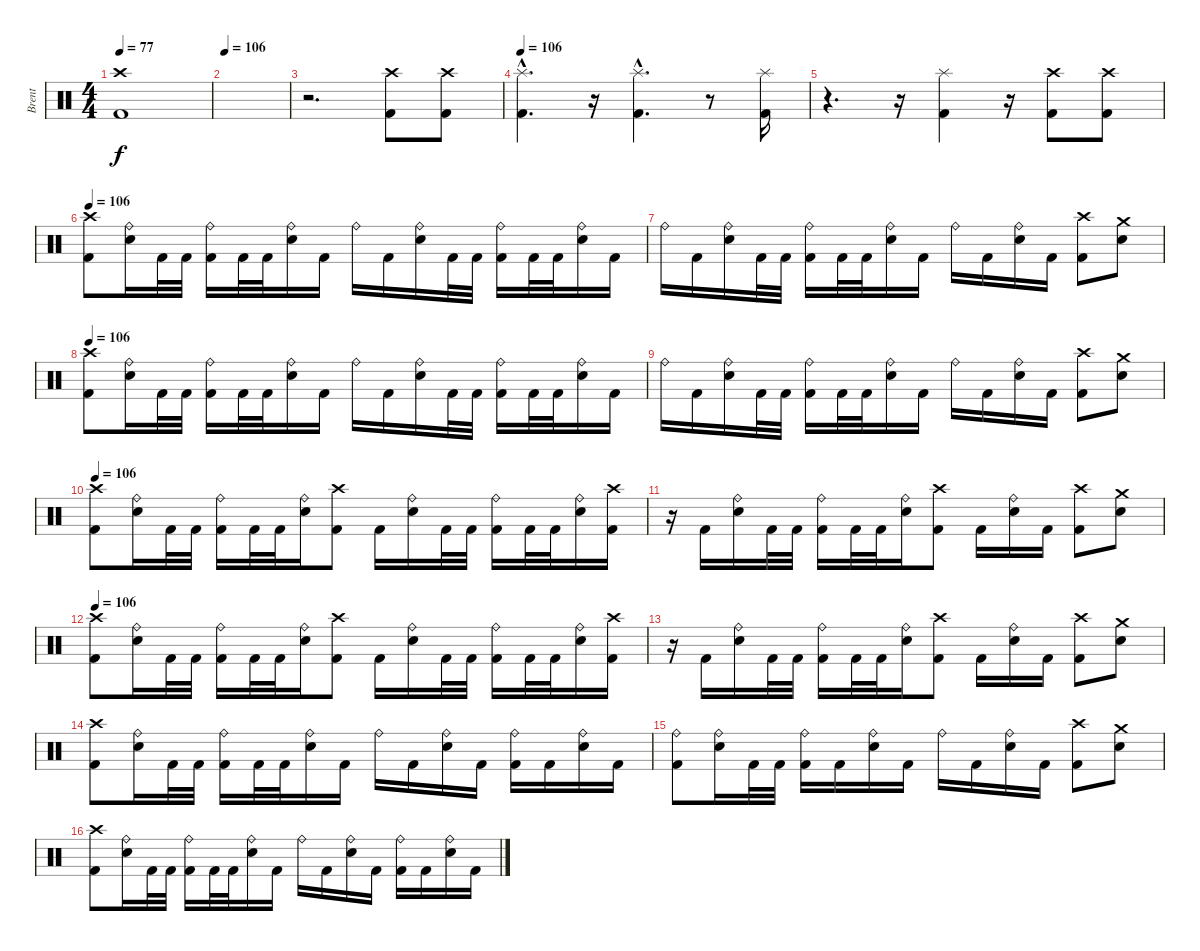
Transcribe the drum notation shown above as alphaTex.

\track ("Brent" "Brent") {instrument percussion}
\staff {score}
\articulation defaults
\ts (4 4)
\tempo 77
\clef neutral
\ks c
("Crash high (hit)" "Kick (hit) 2").1{dy f} |
\tempo 106
|
r.2{d} ("Crash high (hit)" "Kick (hit) 2").8 ("Crash high (hit)" "Kick (hit) 2").8 |
\tempo 106
("Splash (hit)"{hac} "Kick (hit) 2"{hac}).4{d} r.16 ("Splash (hit)"{hac} "Kick (hit) 2"{hac}).4{d} r.8 ("Splash (hit)" "Kick (hit) 2").16 |
r.4{d} r.16 ("Splash (hit)" "Kick (hit) 2").4 r.16 ("Crash high (hit)" "Kick (hit) 2").8 ("Crash high (hit)" "Kick (hit) 2").8 |
\tempo 106
("Crash high (hit)" "Kick (hit) 2").8 ("Ride (bell)" "Snare (hit) 2").16 "Kick (hit) 2".32 "Kick (hit) 2".32 ("Ride (bell)" "Kick (hit) 2").16 "Kick (hit) 2".32 "Kick (hit) 2".32 ("Ride (bell)" "Snare (hit) 2").16 "Kick (hit) 2".16 "Ride (bell)".16 "Kick (hit) 2".16 ("Ride (bell)" "Snare (hit) 2").16 "Kick (hit) 2".32 "Kick (hit) 2".32 ("Ride (bell)" "Kick (hit) 2").16 "Kick (hit) 2".32 "Kick (hit) 2".32 ("Ride (bell)" "Snare (hit) 2").16 "Kick (hit) 2".16 |
"Ride (bell)".16 "Kick (hit) 2".16 ("Ride (bell)" "Snare (hit) 2").16 "Kick (hit) 2".32 "Kick (hit) 2".32 ("Ride (bell)" "Kick (hit) 2").16 "Kick (hit) 2".32 "Kick (hit) 2".32 ("Ride (bell)" "Snare (hit) 2").16 "Kick (hit) 2".16 "Ride (bell)".16 "Kick (hit) 2".16 ("Ride (bell)" "Snare (hit) 2").16 "Kick (hit) 2".16 ("Crash high (hit)" "Kick (hit) 2").8 ("Crash medium (hit)" "Snare (hit) 2").8 |
\tempo 106
("Crash high (hit)" "Kick (hit) 2").8 ("Ride (bell)" "Snare (hit) 2").16 "Kick (hit) 2".32 "Kick (hit) 2".32 ("Ride (bell)" "Kick (hit) 2").16 "Kick (hit) 2".32 "Kick (hit) 2".32 ("Ride (bell)" "Snare (hit) 2").16 "Kick (hit) 2".16 "Ride (bell)".16 "Kick (hit) 2".16 ("Ride (bell)" "Snare (hit) 2").16 "Kick (hit) 2".32 "Kick (hit) 2".32 ("Ride (bell)" "Kick (hit) 2").16 "Kick (hit) 2".32 "Kick (hit) 2".32 ("Ride (bell)" "Snare (hit) 2").16 "Kick (hit) 2".16 |
"Ride (bell)".16 "Kick (hit) 2".16 ("Ride (bell)" "Snare (hit) 2").16 "Kick (hit) 2".32 "Kick (hit) 2".32 ("Ride (bell)" "Kick (hit) 2").16 "Kick (hit) 2".32 "Kick (hit) 2".32 ("Ride (bell)" "Snare (hit) 2").16 "Kick (hit) 2".16 "Ride (bell)".16 "Kick (hit) 2".16 ("Ride (bell)" "Snare (hit) 2").16 "Kick (hit) 2".16 ("Crash high (hit)" "Kick (hit) 2").8 ("Crash medium (hit)" "Snare (hit) 2").8 |
\tempo 106
("Crash high (hit)" "Kick (hit) 2").8 ("Ride (bell)" "Snare (hit) 2").16 "Kick (hit) 2".32 "Kick (hit) 2".32 ("Ride (bell)" "Kick (hit) 2").16 "Kick (hit) 2".32 "Kick (hit) 2".32 ("Ride (bell)" "Snare (hit) 2").16 ("Crash high (hit)" "Kick (hit) 2").8 "Kick (hit) 2".16 ("Ride (bell)" "Snare (hit) 2").16 "Kick (hit) 2".32 "Kick (hit) 2".32 ("Ride (bell)" "Kick (hit) 2").16 "Kick (hit) 2".32 "Kick (hit) 2".32 ("Ride (bell)" "Snare (hit) 2").16 ("Crash high (hit)" "Kick (hit) 2").16 |
r.16 "Kick (hit) 2".16 ("Ride (bell)" "Snare (hit) 2").16 "Kick (hit) 2".32 "Kick (hit) 2".32 ("Ride (bell)" "Kick (hit) 2").16 "Kick (hit) 2".32 "Kick (hit) 2".32 ("Ride (bell)" "Snare (hit) 2").16 ("Crash high (hit)" "Kick (hit) 2").8 "Kick (hit) 2".16 ("Ride (bell)" "Snare (hit) 2").16 "Kick (hit) 2".16 ("Crash high (hit)" "Kick (hit) 2").8 ("Crash medium (hit)" "Snare (hit) 2").8 |
\tempo 106
("Crash high (hit)" "Kick (hit) 2").8 ("Ride (bell)" "Snare (hit) 2").16 "Kick (hit) 2".32 "Kick (hit) 2".32 ("Ride (bell)" "Kick (hit) 2").16 "Kick (hit) 2".32 "Kick (hit) 2".32 ("Ride (bell)" "Snare (hit) 2").16 ("Crash high (hit)" "Kick (hit) 2").8 "Kick (hit) 2".16 ("Ride (bell)" "Snare (hit) 2").16 "Kick (hit) 2".32 "Kick (hit) 2".32 ("Ride (bell)" "Kick (hit) 2").16 "Kick (hit) 2".32 "Kick (hit) 2".32 ("Ride (bell)" "Snare (hit) 2").16 ("Crash high (hit)" "Kick (hit) 2").16 |
r.16 "Kick (hit) 2".16 ("Ride (bell)" "Snare (hit) 2").16 "Kick (hit) 2".32 "Kick (hit) 2".32 ("Ride (bell)" "Kick (hit) 2").16 "Kick (hit) 2".32 "Kick (hit) 2".32 ("Ride (bell)" "Snare (hit) 2").16 ("Crash high (hit)" "Kick (hit) 2").8 "Kick (hit) 2".16 ("Ride (bell)" "Snare (hit) 2").16 "Kick (hit) 2".16 ("Crash high (hit)" "Kick (hit) 2").8 ("Crash medium (hit)" "Snare (hit) 2").8 |
("Crash high (hit)" "Kick (hit) 2").8 ("Ride (bell)" "Snare (hit) 2").16 "Kick (hit) 2".32 "Kick (hit) 2".32 ("Ride (bell)" "Kick (hit) 2").16 "Kick (hit) 2".32 "Kick (hit) 2".32 ("Ride (bell)" "Snare (hit) 2").16 "Kick (hit) 2".16 "Ride (bell)".16 "Kick (hit) 2".16 ("Ride (bell)" "Snare (hit) 2").16 "Kick (hit) 2".16 ("Ride (bell)" "Kick (hit) 2").16 "Kick (hit) 2".16 ("Ride (bell)" "Snare (hit) 2").16 "Kick (hit) 2".16 |
("Ride (bell)" "Kick (hit) 2").8 ("Ride (bell)" "Snare (hit) 2").16 "Kick (hit) 2".32 "Kick (hit) 2".32 ("Ride (bell)" "Kick (hit) 2").16 "Kick (hit) 2".16 ("Ride (bell)" "Snare (hit) 2").16 "Kick (hit) 2".16 "Ride (bell)".16 "Kick (hit) 2".16 ("Ride (bell)" "Snare (hit) 2").16 "Kick (hit) 2".16 ("Crash high (hit)" "Kick (hit) 2").8 ("Crash medium (hit)" "Snare (hit) 2").8 |
("Crash high (hit)" "Kick (hit) 2").8 ("Ride (bell)" "Snare (hit) 2").16 "Kick (hit) 2".32 "Kick (hit) 2".32 ("Ride (bell)" "Kick (hit) 2").16 "Kick (hit) 2".32 "Kick (hit) 2".32 ("Ride (bell)" "Snare (hit) 2").16 "Kick (hit) 2".16 "Ride (bell)".16 "Kick (hit) 2".16 ("Ride (bell)" "Snare (hit) 2").16 "Kick (hit) 2".16 ("Ride (bell)" "Kick (hit) 2").16 "Kick (hit) 2".16 ("Ride (bell)" "Snare (hit) 2").16 "Kick (hit) 2".16
